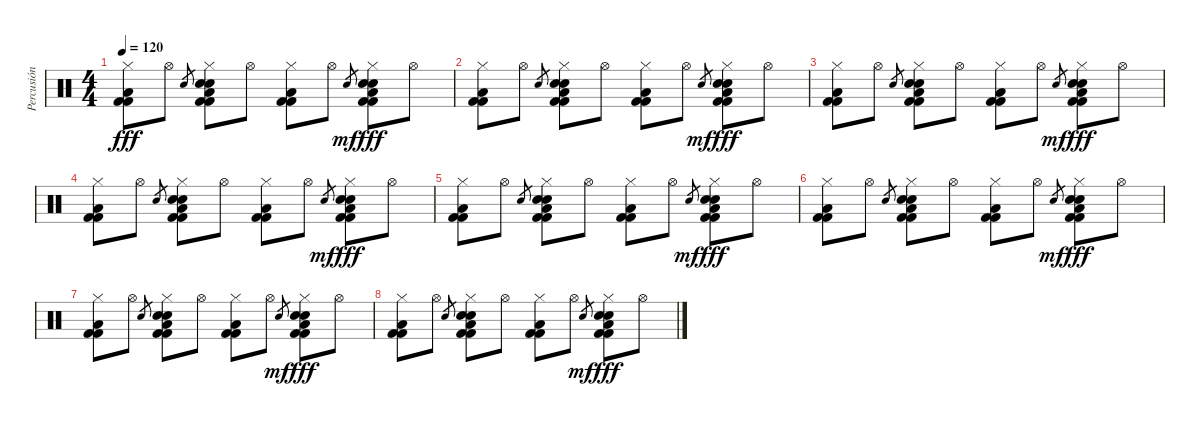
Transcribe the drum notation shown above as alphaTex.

\track ("Percusión I" "Percusión ") {instrument percussion}
\staff {score}
\articulation defaults
\ts (4 4)
\tempo 120
\clef neutral
\ks c
("Kick (hit) 2" "Hi-Hat (closed)" "Low Floor Tom (hit)" "Kick (hit) 2").8{dy fff volume 6} "Hi-Hat (open)".8 "Hand Clap (hit)".8{gr} ("Kick (hit) 2" "Hi-Hat (closed)" "Electric Snare (hit)" "Hand Clap (hit)" "Low Floor Tom (hit)" "Kick (hit) 2").8 "Hi-Hat (open)".8 ("Kick (hit) 2" "Hi-Hat (closed)" "Low Floor Tom (hit)" "Kick (hit) 2").8 "Hi-Hat (open)".8 "Hand Clap (hit)".8{gr dy mf} ("Kick (hit) 2" "Hi-Hat (closed)" "Electric Snare (hit)" "Hand Clap (hit)" "Low Floor Tom (hit)" "Kick (hit) 2").8{dy fff} "Hi-Hat (open)".8 |
("Kick (hit) 2" "Hi-Hat (closed)" "Low Floor Tom (hit)" "Kick (hit) 2").8 "Hi-Hat (open)".8 "Hand Clap (hit)".8{gr} ("Kick (hit) 2" "Hi-Hat (closed)" "Electric Snare (hit)" "Hand Clap (hit)" "Low Floor Tom (hit)" "Kick (hit) 2").8 "Hi-Hat (open)".8 ("Kick (hit) 2" "Hi-Hat (closed)" "Low Floor Tom (hit)" "Kick (hit) 2").8 "Hi-Hat (open)".8 "Hand Clap (hit)".8{gr dy mf} ("Kick (hit) 2" "Hi-Hat (closed)" "Electric Snare (hit)" "Hand Clap (hit)" "Low Floor Tom (hit)" "Kick (hit) 2").8{dy fff} "Hi-Hat (open)".8 |
("Kick (hit) 2" "Hi-Hat (closed)" "Low Floor Tom (hit)" "Kick (hit) 2").8 "Hi-Hat (open)".8 "Hand Clap (hit)".8{gr} ("Kick (hit) 2" "Hi-Hat (closed)" "Electric Snare (hit)" "Hand Clap (hit)" "Low Floor Tom (hit)" "Kick (hit) 2").8 "Hi-Hat (open)".8 ("Kick (hit) 2" "Hi-Hat (closed)" "Low Floor Tom (hit)" "Kick (hit) 2").8 "Hi-Hat (open)".8 "Hand Clap (hit)".8{gr dy mf} ("Kick (hit) 2" "Hi-Hat (closed)" "Electric Snare (hit)" "Hand Clap (hit)" "Low Floor Tom (hit)" "Kick (hit) 2").8{dy fff} "Hi-Hat (open)".8 |
("Kick (hit) 2" "Hi-Hat (closed)" "Low Floor Tom (hit)" "Kick (hit) 2").8 "Hi-Hat (open)".8 "Hand Clap (hit)".8{gr} ("Kick (hit) 2" "Hi-Hat (closed)" "Electric Snare (hit)" "Hand Clap (hit)" "Low Floor Tom (hit)" "Kick (hit) 2").8 "Hi-Hat (open)".8 ("Kick (hit) 2" "Hi-Hat (closed)" "Low Floor Tom (hit)" "Kick (hit) 2").8 "Hi-Hat (open)".8 "Hand Clap (hit)".8{gr dy mf} ("Kick (hit) 2" "Hi-Hat (closed)" "Electric Snare (hit)" "Hand Clap (hit)" "Low Floor Tom (hit)" "Kick (hit) 2").8{dy fff} "Hi-Hat (open)".8 |
("Kick (hit) 2" "Hi-Hat (closed)" "Low Floor Tom (hit)" "Kick (hit) 2").8{volume 0} "Hi-Hat (open)".8 "Hand Clap (hit)".8{gr} ("Kick (hit) 2" "Hi-Hat (closed)" "Electric Snare (hit)" "Hand Clap (hit)" "Low Floor Tom (hit)" "Kick (hit) 2").8 "Hi-Hat (open)".8 ("Kick (hit) 2" "Hi-Hat (closed)" "Low Floor Tom (hit)" "Kick (hit) 2").8 "Hi-Hat (open)".8 "Hand Clap (hit)".8{gr dy mf} ("Kick (hit) 2" "Hi-Hat (closed)" "Electric Snare (hit)" "Hand Clap (hit)" "Low Floor Tom (hit)" "Kick (hit) 2").8{dy fff} "Hi-Hat (open)".8 |
("Kick (hit) 2" "Hi-Hat (closed)" "Low Floor Tom (hit)" "Kick (hit) 2").8 "Hi-Hat (open)".8 "Hand Clap (hit)".8{gr} ("Kick (hit) 2" "Hi-Hat (closed)" "Electric Snare (hit)" "Hand Clap (hit)" "Low Floor Tom (hit)" "Kick (hit) 2").8 "Hi-Hat (open)".8 ("Kick (hit) 2" "Hi-Hat (closed)" "Low Floor Tom (hit)" "Kick (hit) 2").8 "Hi-Hat (open)".8 "Hand Clap (hit)".8{gr dy mf} ("Kick (hit) 2" "Hi-Hat (closed)" "Electric Snare (hit)" "Hand Clap (hit)" "Low Floor Tom (hit)" "Kick (hit) 2").8{dy fff} "Hi-Hat (open)".8 |
("Kick (hit) 2" "Hi-Hat (closed)" "Low Floor Tom (hit)" "Kick (hit) 2").8 "Hi-Hat (open)".8 "Hand Clap (hit)".8{gr} ("Kick (hit) 2" "Hi-Hat (closed)" "Electric Snare (hit)" "Hand Clap (hit)" "Low Floor Tom (hit)" "Kick (hit) 2").8 "Hi-Hat (open)".8 ("Kick (hit) 2" "Hi-Hat (closed)" "Low Floor Tom (hit)" "Kick (hit) 2").8 "Hi-Hat (open)".8 "Hand Clap (hit)".8{gr dy mf} ("Kick (hit) 2" "Hi-Hat (closed)" "Electric Snare (hit)" "Hand Clap (hit)" "Low Floor Tom (hit)" "Kick (hit) 2").8{dy fff} "Hi-Hat (open)".8 |
("Kick (hit) 2" "Hi-Hat (closed)" "Low Floor Tom (hit)" "Kick (hit) 2").8 "Hi-Hat (open)".8 "Hand Clap (hit)".8{gr} ("Kick (hit) 2" "Hi-Hat (closed)" "Electric Snare (hit)" "Hand Clap (hit)" "Low Floor Tom (hit)" "Kick (hit) 2").8 "Hi-Hat (open)".8 ("Kick (hit) 2" "Hi-Hat (closed)" "Low Floor Tom (hit)" "Kick (hit) 2").8 "Hi-Hat (open)".8 "Hand Clap (hit)".8{gr dy mf} ("Kick (hit) 2" "Hi-Hat (closed)" "Electric Snare (hit)" "Hand Clap (hit)" "Low Floor Tom (hit)" "Kick (hit) 2").8{dy fff} "Hi-Hat (open)".8
